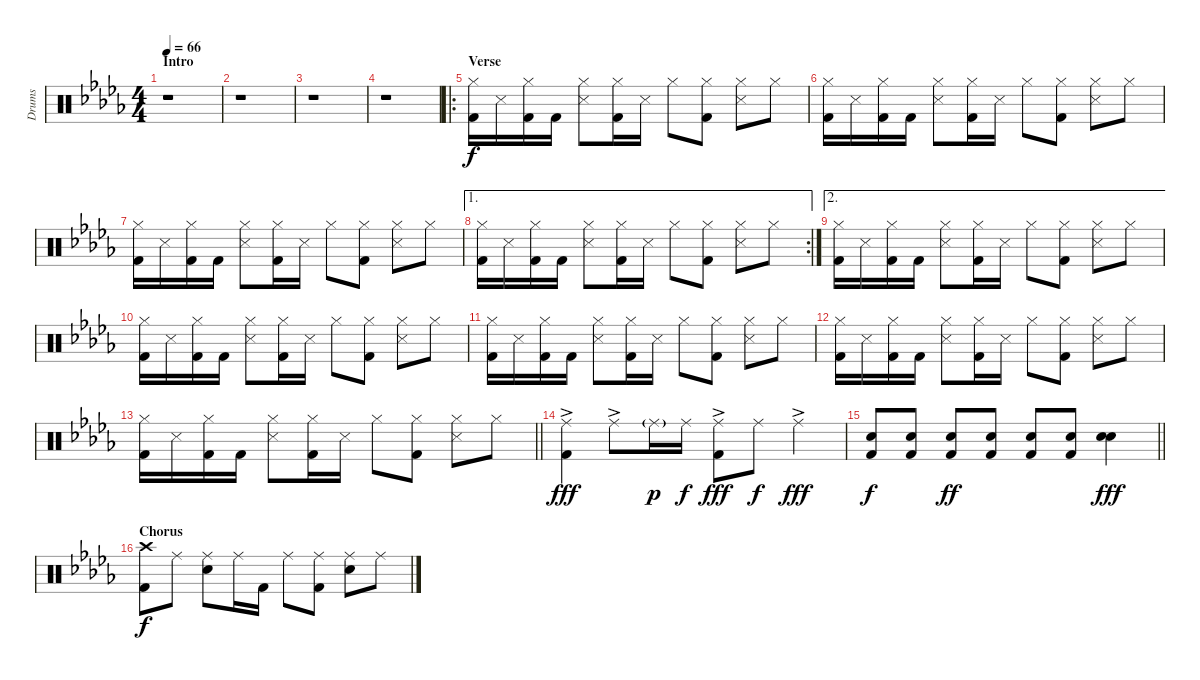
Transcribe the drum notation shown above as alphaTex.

\track ("Drums" "Drums") {instrument percussion}
\staff {score}
\articulation defaults
\ts (4 4)
\section ("" "Intro")
\tempo 66
\clef neutral
\ks db
r.1{dy f} |
r.1 |
r.1 |
r.1 |
\ro
\section ("" "Verse")
("Kick (hit) 2" "Hi-Hat (closed)").16 "Snare (side stick) 3".16 ("Kick (hit) 2" "Hi-Hat (closed)").16 "Kick (hit) 2".16 ("Snare (side stick) 3" "Hi-Hat (closed)").8 ("Kick (hit) 2" "Hi-Hat (closed)").16 "Snare (side stick) 3".16 "Hi-Hat (closed)".8 ("Kick (hit) 2" "Hi-Hat (closed)").8 ("Snare (side stick) 3" "Hi-Hat (closed)").8 "Hi-Hat (closed)".8 |
("Kick (hit) 2" "Hi-Hat (closed)").16 "Snare (side stick) 3".16 ("Kick (hit) 2" "Hi-Hat (closed)").16 "Kick (hit) 2".16 ("Snare (side stick) 3" "Hi-Hat (closed)").8 ("Kick (hit) 2" "Hi-Hat (closed)").16 "Snare (side stick) 3".16 "Hi-Hat (closed)".8 ("Kick (hit) 2" "Hi-Hat (closed)").8 ("Snare (side stick) 3" "Hi-Hat (closed)").8 "Hi-Hat (closed)".8 |
("Kick (hit) 2" "Hi-Hat (closed)").16 "Snare (side stick) 3".16 ("Kick (hit) 2" "Hi-Hat (closed)").16 "Kick (hit) 2".16 ("Snare (side stick) 3" "Hi-Hat (closed)").8 ("Kick (hit) 2" "Hi-Hat (closed)").16 "Snare (side stick) 3".16 "Hi-Hat (closed)".8 ("Kick (hit) 2" "Hi-Hat (closed)").8 ("Snare (side stick) 3" "Hi-Hat (closed)").8 "Hi-Hat (closed)".8 |
\ae 1
\rc 2
("Kick (hit) 2" "Hi-Hat (closed)").16 "Snare (side stick) 3".16 ("Kick (hit) 2" "Hi-Hat (closed)").16 "Kick (hit) 2".16 ("Snare (side stick) 3" "Hi-Hat (closed)").8 ("Kick (hit) 2" "Hi-Hat (closed)").16 "Snare (side stick) 3".16 "Hi-Hat (closed)".8 ("Kick (hit) 2" "Hi-Hat (closed)").8 ("Snare (side stick) 3" "Hi-Hat (closed)").8 "Hi-Hat (closed)".8 |
\ae 2
("Kick (hit) 2" "Hi-Hat (closed)").16 "Snare (side stick) 3".16 ("Kick (hit) 2" "Hi-Hat (closed)").16 "Kick (hit) 2".16 ("Snare (side stick) 3" "Hi-Hat (closed)").8 ("Kick (hit) 2" "Hi-Hat (closed)").16 "Snare (side stick) 3".16 "Hi-Hat (closed)".8 ("Kick (hit) 2" "Hi-Hat (closed)").8 ("Snare (side stick) 3" "Hi-Hat (closed)").8 "Hi-Hat (closed)".8 |
("Kick (hit) 2" "Hi-Hat (closed)").16 "Snare (side stick) 3".16 ("Kick (hit) 2" "Hi-Hat (closed)").16 "Kick (hit) 2".16 ("Snare (side stick) 3" "Hi-Hat (closed)").8 ("Kick (hit) 2" "Hi-Hat (closed)").16 "Snare (side stick) 3".16 "Hi-Hat (closed)".8 ("Kick (hit) 2" "Hi-Hat (closed)").8 ("Snare (side stick) 3" "Hi-Hat (closed)").8 "Hi-Hat (closed)".8 |
("Kick (hit) 2" "Hi-Hat (closed)").16 "Snare (side stick) 3".16 ("Kick (hit) 2" "Hi-Hat (closed)").16 "Kick (hit) 2".16 ("Snare (side stick) 3" "Hi-Hat (closed)").8 ("Kick (hit) 2" "Hi-Hat (closed)").16 "Snare (side stick) 3".16 "Hi-Hat (closed)".8 ("Kick (hit) 2" "Hi-Hat (closed)").8 ("Snare (side stick) 3" "Hi-Hat (closed)").8 "Hi-Hat (closed)".8 |
("Kick (hit) 2" "Hi-Hat (closed)").16 "Snare (side stick) 3".16 ("Kick (hit) 2" "Hi-Hat (closed)").16 "Kick (hit) 2".16 ("Snare (side stick) 3" "Hi-Hat (closed)").8 ("Kick (hit) 2" "Hi-Hat (closed)").16 "Snare (side stick) 3".16 "Hi-Hat (closed)".8 ("Kick (hit) 2" "Hi-Hat (closed)").8 ("Snare (side stick) 3" "Hi-Hat (closed)").8 "Hi-Hat (closed)".8 |
\barLineRight lightlight
("Kick (hit) 2" "Hi-Hat (closed)").16 "Snare (side stick) 3".16 ("Kick (hit) 2" "Hi-Hat (closed)").16 "Kick (hit) 2".16 ("Snare (side stick) 3" "Hi-Hat (closed)").8 ("Kick (hit) 2" "Hi-Hat (closed)").16 "Snare (side stick) 3".16 "Hi-Hat (closed)".8 ("Kick (hit) 2" "Hi-Hat (closed)").8 ("Snare (side stick) 3" "Hi-Hat (closed)").8 "Hi-Hat (closed)".8 |
\section ("" "")
("Kick (hit) 2" "Ride (middle)"{ac}).4{dy fff} "Ride (middle)"{ac}.8 "Ride (middle)"{g}.16{dy p} "Ride (middle)".16{dy f} ("Kick (hit) 2" "Ride (middle)"{ac}).8{dy fff} "Ride (middle)".8{dy f} "Ride (middle)"{ac}.4{dy fff} |
\barLineRight lightlight
("Kick (hit) 2" "Snare (hit) 2").8{dy f} ("Kick (hit) 2" "Snare (hit) 2").8 ("Kick (hit) 2" "Snare (hit) 2").8{dy ff} ("Kick (hit) 2" "Snare (hit) 2").8 ("Kick (hit) 2" "Snare (hit) 2").8 ("Kick (hit) 2" "Snare (hit) 2").8 ("Snare (hit) 2" "Snare (hit) 2").4{bd 120 dy fff} |
\section ("" "Chorus")
("Kick (hit) 2" "Crash high (hit)").8{dy f} "Ride (middle)".8 ("Ride (middle)" "Snare (hit) 2").8 "Ride (middle)".16 "Kick (hit) 2".16 "Ride (middle)".8 ("Kick (hit) 2" "Ride (middle)").8 ("Ride (middle)" "Snare (hit) 2").8 "Ride (middle)".8
